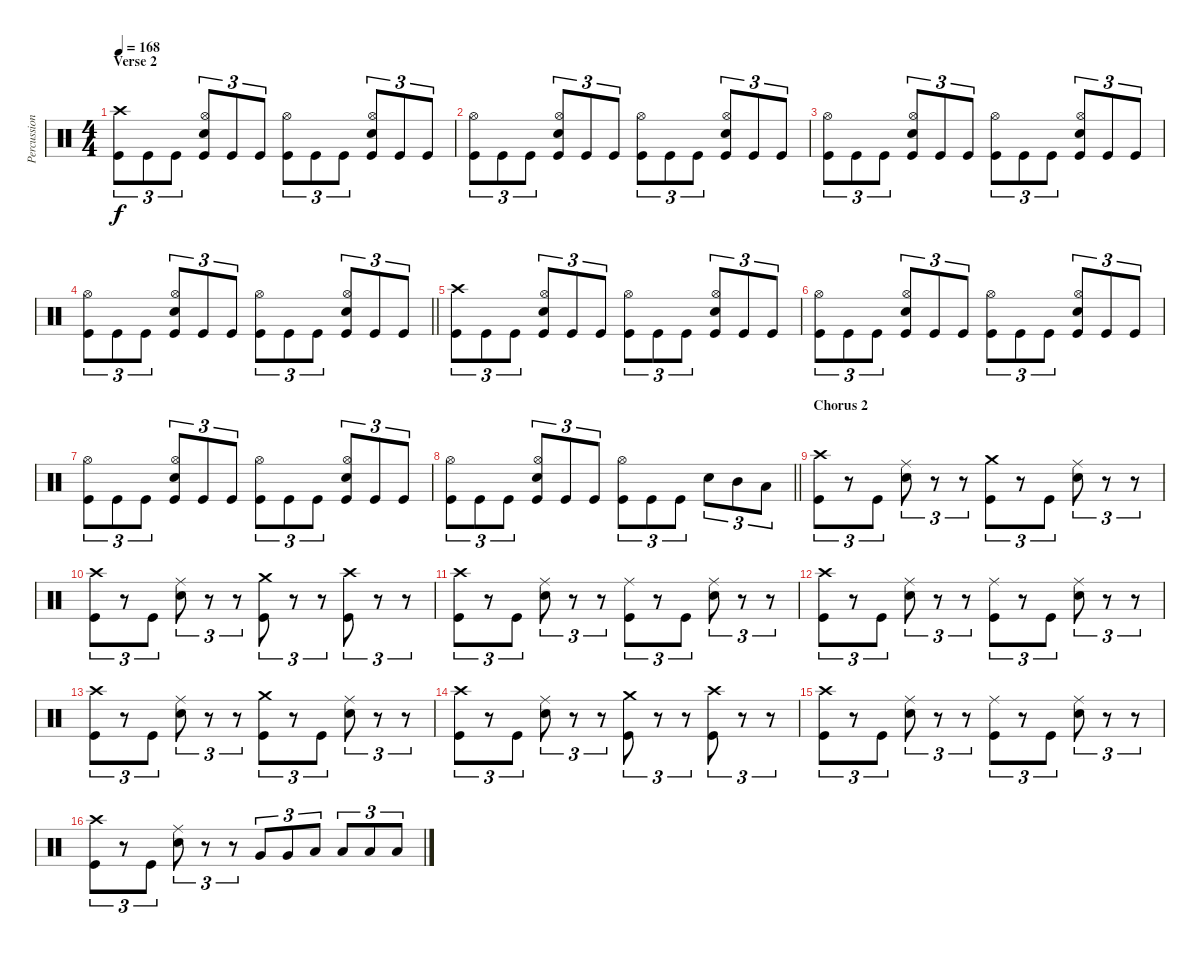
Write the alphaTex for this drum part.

\track ("Percussion" "Percussion") {instrument percussion}
\staff {score}
\articulation defaults
\ts (4 4)
\section ("" "Verse 2")
\tempo 168
\clef neutral
\ks c
("Crash high (hit)" "Kick (hit)").8{tu (3 2) dy f} "Kick (hit)".8{tu (3 2)} "Kick (hit)".8{tu (3 2)} ("Hi-Hat (open)" "Electric Snare (hit)" "Kick (hit)").8{tu (3 2)} "Kick (hit)".8{tu (3 2)} "Kick (hit)".8{tu (3 2)} ("Hi-Hat (open)" "Kick (hit)").8{tu (3 2)} "Kick (hit)".8{tu (3 2)} "Kick (hit)".8{tu (3 2)} ("Hi-Hat (open)" "Electric Snare (hit)" "Kick (hit)").8{tu (3 2)} "Kick (hit)".8{tu (3 2)} "Kick (hit)".8{tu (3 2)} |
("Hi-Hat (open)" "Kick (hit)").8{tu (3 2)} "Kick (hit)".8{tu (3 2)} "Kick (hit)".8{tu (3 2)} ("Hi-Hat (open)" "Electric Snare (hit)" "Kick (hit)").8{tu (3 2)} "Kick (hit)".8{tu (3 2)} "Kick (hit)".8{tu (3 2)} ("Hi-Hat (open)" "Kick (hit)").8{tu (3 2)} "Kick (hit)".8{tu (3 2)} "Kick (hit)".8{tu (3 2)} ("Hi-Hat (open)" "Electric Snare (hit)" "Kick (hit)").8{tu (3 2)} "Kick (hit)".8{tu (3 2)} "Kick (hit)".8{tu (3 2)} |
("Hi-Hat (open)" "Kick (hit)").8{tu (3 2)} "Kick (hit)".8{tu (3 2)} "Kick (hit)".8{tu (3 2)} ("Hi-Hat (open)" "Electric Snare (hit)" "Kick (hit)").8{tu (3 2)} "Kick (hit)".8{tu (3 2)} "Kick (hit)".8{tu (3 2)} ("Hi-Hat (open)" "Kick (hit)").8{tu (3 2)} "Kick (hit)".8{tu (3 2)} "Kick (hit)".8{tu (3 2)} ("Hi-Hat (open)" "Electric Snare (hit)" "Kick (hit)").8{tu (3 2)} "Kick (hit)".8{tu (3 2)} "Kick (hit)".8{tu (3 2)} |
\barLineRight lightlight
("Hi-Hat (open)" "Kick (hit)").8{tu (3 2)} "Kick (hit)".8{tu (3 2)} "Kick (hit)".8{tu (3 2)} ("Hi-Hat (open)" "Electric Snare (hit)" "Kick (hit)").8{tu (3 2)} "Kick (hit)".8{tu (3 2)} "Kick (hit)".8{tu (3 2)} ("Hi-Hat (open)" "Kick (hit)").8{tu (3 2)} "Kick (hit)".8{tu (3 2)} "Kick (hit)".8{tu (3 2)} ("Hi-Hat (open)" "Electric Snare (hit)" "Kick (hit)").8{tu (3 2)} "Kick (hit)".8{tu (3 2)} "Kick (hit)".8{tu (3 2)} |
("Crash high (hit)" "Kick (hit)").8{tu (3 2)} "Kick (hit)".8{tu (3 2)} "Kick (hit)".8{tu (3 2)} ("Hi-Hat (open)" "Electric Snare (hit)" "Kick (hit)").8{tu (3 2)} "Kick (hit)".8{tu (3 2)} "Kick (hit)".8{tu (3 2)} ("Hi-Hat (open)" "Kick (hit)").8{tu (3 2)} "Kick (hit)".8{tu (3 2)} "Kick (hit)".8{tu (3 2)} ("Hi-Hat (open)" "Electric Snare (hit)" "Kick (hit)").8{tu (3 2)} "Kick (hit)".8{tu (3 2)} "Kick (hit)".8{tu (3 2)} |
("Hi-Hat (open)" "Kick (hit)").8{tu (3 2)} "Kick (hit)".8{tu (3 2)} "Kick (hit)".8{tu (3 2)} ("Hi-Hat (open)" "Electric Snare (hit)" "Kick (hit)").8{tu (3 2)} "Kick (hit)".8{tu (3 2)} "Kick (hit)".8{tu (3 2)} ("Hi-Hat (open)" "Kick (hit)").8{tu (3 2)} "Kick (hit)".8{tu (3 2)} "Kick (hit)".8{tu (3 2)} ("Hi-Hat (open)" "Electric Snare (hit)" "Kick (hit)").8{tu (3 2)} "Kick (hit)".8{tu (3 2)} "Kick (hit)".8{tu (3 2)} |
("Hi-Hat (open)" "Kick (hit)").8{tu (3 2)} "Kick (hit)".8{tu (3 2)} "Kick (hit)".8{tu (3 2)} ("Hi-Hat (open)" "Electric Snare (hit)" "Kick (hit)").8{tu (3 2)} "Kick (hit)".8{tu (3 2)} "Kick (hit)".8{tu (3 2)} ("Hi-Hat (open)" "Kick (hit)").8{tu (3 2)} "Kick (hit)".8{tu (3 2)} "Kick (hit)".8{tu (3 2)} ("Hi-Hat (open)" "Electric Snare (hit)" "Kick (hit)").8{tu (3 2)} "Kick (hit)".8{tu (3 2)} "Kick (hit)".8{tu (3 2)} |
\barLineRight lightlight
("Hi-Hat (open)" "Kick (hit)").8{tu (3 2)} "Kick (hit)".8{tu (3 2)} "Kick (hit)".8{tu (3 2)} ("Hi-Hat (open)" "Electric Snare (hit)" "Kick (hit)").8{tu (3 2)} "Kick (hit)".8{tu (3 2)} "Kick (hit)".8{tu (3 2)} ("Hi-Hat (open)" "Kick (hit)").8{tu (3 2)} "Kick (hit)".8{tu (3 2)} "Kick (hit)".8{tu (3 2)} "Electric Snare (hit)".8{tu (3 2)} "Mid Tom (hit)".8{tu (3 2)} "Low Tom (hit)".8{tu (3 2)} |
\section ("" "Chorus 2")
("Crash high (hit)" "Kick (hit)").8{tu (3 2)} r.8{tu (3 2)} "Kick (hit)".8{tu (3 2)} ("Ride (middle)" "Electric Snare (hit)").8{tu (3 2)} r.8{tu (3 2)} r.8{tu (3 2)} ("Crash medium (hit)" "Kick (hit)").8{tu (3 2)} r.8{tu (3 2)} "Kick (hit)".8{tu (3 2)} ("Ride (middle)" "Electric Snare (hit)").8{tu (3 2)} r.8{tu (3 2)} r.8{tu (3 2)} |
("Crash high (hit)" "Kick (hit)").8{tu (3 2)} r.8{tu (3 2)} "Kick (hit)".8{tu (3 2)} ("Ride (middle)" "Electric Snare (hit)").8{tu (3 2)} r.8{tu (3 2)} r.8{tu (3 2)} ("Crash medium (hit)" "Kick (hit)").8{tu (3 2)} r.8{tu (3 2)} r.8{tu (3 2)} ("Crash high (hit)" "Kick (hit)").8{tu (3 2)} r.8{tu (3 2)} r.8{tu (3 2)} |
("Crash high (hit)" "Kick (hit)").8{tu (3 2)} r.8{tu (3 2)} "Kick (hit)".8{tu (3 2)} ("Ride (middle)" "Electric Snare (hit)").8{tu (3 2)} r.8{tu (3 2)} r.8{tu (3 2)} ("Ride (middle)" "Kick (hit)").8{tu (3 2)} r.8{tu (3 2)} "Kick (hit)".8{tu (3 2)} ("Ride (middle)" "Electric Snare (hit)").8{tu (3 2)} r.8{tu (3 2)} r.8{tu (3 2)} |
("Crash high (hit)" "Kick (hit)").8{tu (3 2)} r.8{tu (3 2)} "Kick (hit)".8{tu (3 2)} ("Ride (middle)" "Electric Snare (hit)").8{tu (3 2)} r.8{tu (3 2)} r.8{tu (3 2)} ("Ride (middle)" "Kick (hit)").8{tu (3 2)} r.8{tu (3 2)} "Kick (hit)".8{tu (3 2)} ("Ride (middle)" "Electric Snare (hit)").8{tu (3 2)} r.8{tu (3 2)} r.8{tu (3 2)} |
("Crash high (hit)" "Kick (hit)").8{tu (3 2)} r.8{tu (3 2)} "Kick (hit)".8{tu (3 2)} ("Ride (middle)" "Electric Snare (hit)").8{tu (3 2)} r.8{tu (3 2)} r.8{tu (3 2)} ("Crash medium (hit)" "Kick (hit)").8{tu (3 2)} r.8{tu (3 2)} "Kick (hit)".8{tu (3 2)} ("Ride (middle)" "Electric Snare (hit)").8{tu (3 2)} r.8{tu (3 2)} r.8{tu (3 2)} |
("Crash high (hit)" "Kick (hit)").8{tu (3 2)} r.8{tu (3 2)} "Kick (hit)".8{tu (3 2)} ("Ride (middle)" "Electric Snare (hit)").8{tu (3 2)} r.8{tu (3 2)} r.8{tu (3 2)} ("Crash medium (hit)" "Kick (hit)").8{tu (3 2)} r.8{tu (3 2)} r.8{tu (3 2)} ("Crash high (hit)" "Kick (hit)").8{tu (3 2)} r.8{tu (3 2)} r.8{tu (3 2)} |
("Crash high (hit)" "Kick (hit)").8{tu (3 2)} r.8{tu (3 2)} "Kick (hit)".8{tu (3 2)} ("Ride (middle)" "Electric Snare (hit)").8{tu (3 2)} r.8{tu (3 2)} r.8{tu (3 2)} ("Ride (middle)" "Kick (hit)").8{tu (3 2)} r.8{tu (3 2)} "Kick (hit)".8{tu (3 2)} ("Ride (middle)" "Electric Snare (hit)").8{tu (3 2)} r.8{tu (3 2)} r.8{tu (3 2)} |
("Crash high (hit)" "Kick (hit)").8{tu (3 2)} r.8{tu (3 2)} "Kick (hit)".8{tu (3 2)} ("Ride (middle)" "Electric Snare (hit)").8{tu (3 2)} r.8{tu (3 2)} r.8{tu (3 2)} "Very Low Tom (hit)".8{tu (3 2)} "Very Low Tom (hit)".8{tu (3 2)} "Low Floor Tom (hit)".8{tu (3 2)} "Low Floor Tom (hit)".8{tu (3 2)} "Low Floor Tom (hit)".8{tu (3 2)} "Low Floor Tom (hit)".8{tu (3 2)}
